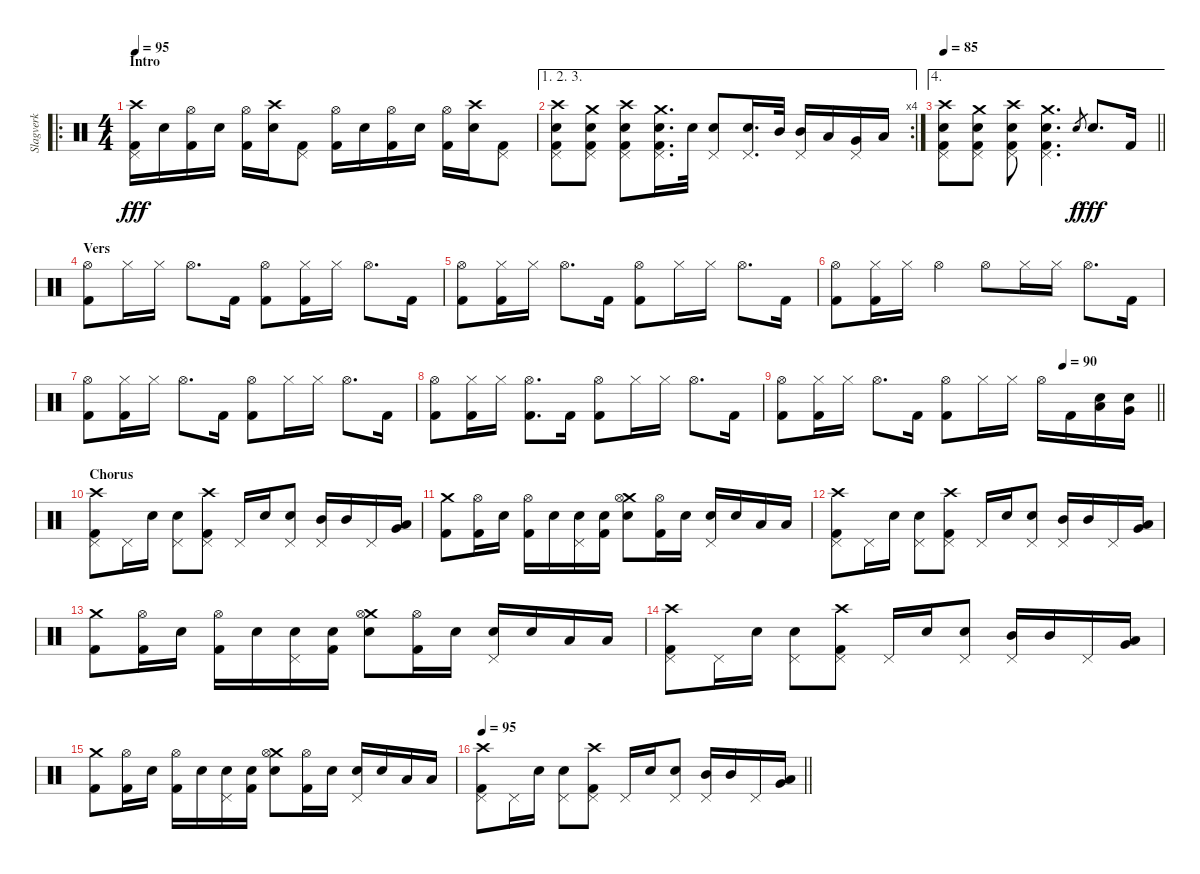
\track ("Slagverk" "Slagverk") {instrument percussion}
\staff {score}
\articulation defaults
\ro
\ts (4 4)
\section ("" "Intro")
\tempo 95
\clef neutral
\ks c
("Crash high (hit)" "Pedal Hi-Hat (hit)" "Kick (hit) 2").16{dy fff} "Snare (hit) 2".16 ("Hi-Hat (open)" "Kick (hit) 2").16 "Snare (hit) 2".16 ("Hi-Hat (open)" "Kick (hit) 2").16 ("Crash high (hit)" "Snare (hit) 2").16 ("Pedal Hi-Hat (hit)" "Kick (hit) 2").8 ("Hi-Hat (open)" "Kick (hit) 2").16 "Snare (hit) 2".16 ("Hi-Hat (open)" "Kick (hit) 2").16 "Snare (hit) 2".16 ("Hi-Hat (open)" "Kick (hit) 2").16 ("Crash high (hit)" "Snare (hit) 2").16 ("Pedal Hi-Hat (hit)" "Kick (hit) 2").8 |
\ae (1 2 3)
\rc 4
("Crash high (hit)" "Pedal Hi-Hat (hit)" "Snare (hit) 2" "Kick (hit) 2").8 ("Crash medium (hit)" "Pedal Hi-Hat (hit)" "Snare (hit) 2" "Kick (hit) 2").8 ("Crash high (hit)" "Pedal Hi-Hat (hit)" "Snare (hit) 2" "Kick (hit) 2").8 ("Crash medium (hit)" "Pedal Hi-Hat (hit)" "Snare (hit) 2" "Kick (hit) 2").16{d} "Snare (hit) 2".32 ("Pedal Hi-Hat (hit)" "Snare (hit) 2").8 ("Pedal Hi-Hat (hit)" "Snare (hit) 2").16{d} "Mid Tom (hit)".32 ("Pedal Hi-Hat (hit)" "Mid Tom (hit)").16 "Low Tom (hit)".16 ("Pedal Hi-Hat (hit)" "Very Low Tom (hit)").16 "Low Floor Tom (hit)".16 |
\ae 4
\tempo 85
\barLineRight lightlight
("Crash high (hit)" "Pedal Hi-Hat (hit)" "Snare (hit) 2" "Kick (hit) 2").8 ("Crash medium (hit)" "Pedal Hi-Hat (hit)" "Snare (hit) 2" "Kick (hit) 2").8 ("Crash high (hit)" "Pedal Hi-Hat (hit)" "Snare (hit) 2" "Kick (hit) 2").8 ("Crash medium (hit)" "Pedal Hi-Hat (hit)" "Snare (hit) 2" "Kick (hit) 2").4{d} "Snare (hit) 2".8{gr dy f} "Snare (hit) 2".8{d dy fff} "Kick (hit) 2".16 |
\section ("" "Vers")
("Hi-Hat (open)" "Kick (hit) 2").8 "Hi-Hat (closed)".16 "Hi-Hat (closed)".16 "Hi-Hat (open)".8{d} "Kick (hit) 2".16 ("Hi-Hat (open)" "Kick (hit) 2").8 ("Hi-Hat (closed)" "Kick (hit) 2").16 "Hi-Hat (closed)".16 "Hi-Hat (open)".8{d} "Kick (hit) 2".16 |
("Hi-Hat (open)" "Kick (hit) 2").8 ("Hi-Hat (closed)" "Kick (hit) 2").16 "Hi-Hat (closed)".16 "Hi-Hat (open)".8{d} "Kick (hit) 2".16 ("Hi-Hat (open)" "Kick (hit) 2").8 "Hi-Hat (closed)".16 "Hi-Hat (closed)".16 "Hi-Hat (open)".8{d} "Kick (hit) 2".16 |
("Hi-Hat (open)" "Kick (hit) 2").8 ("Hi-Hat (closed)" "Kick (hit) 2").16 "Hi-Hat (closed)".16 "Hi-Hat (open)".4 "Hi-Hat (open)".8 "Hi-Hat (closed)".16 "Hi-Hat (closed)".16 "Hi-Hat (open)".8{d} "Kick (hit) 2".16 |
("Hi-Hat (open)" "Kick (hit) 2").8 ("Hi-Hat (closed)" "Kick (hit) 2").16 "Hi-Hat (closed)".16 "Hi-Hat (open)".8{d} "Kick (hit) 2".16 ("Hi-Hat (open)" "Kick (hit) 2").8 "Hi-Hat (closed)".16 "Hi-Hat (closed)".16 "Hi-Hat (open)".8{d} "Kick (hit) 2".16 |
("Hi-Hat (open)" "Kick (hit) 2").8 ("Hi-Hat (closed)" "Kick (hit) 2").16 "Hi-Hat (closed)".16 ("Hi-Hat (open)" "Kick (hit) 2").8{d} "Kick (hit) 2".16 ("Hi-Hat (open)" "Kick (hit) 2").8 "Hi-Hat (closed)".16 "Hi-Hat (closed)".16 "Hi-Hat (open)".8{d} "Kick (hit) 2".16 |
\tempo (90 0.75)
\barLineRight lightlight
("Hi-Hat (open)" "Kick (hit) 2").8 ("Hi-Hat (closed)" "Kick (hit) 2").16 "Hi-Hat (closed)".16 "Hi-Hat (open)".8{d} "Kick (hit) 2".16 ("Hi-Hat (open)" "Kick (hit) 2").8 "Hi-Hat (closed)".16 "Hi-Hat (closed)".16 "Hi-Hat (open)".16 "Kick (hit) 2".16 ("Low Tom (hit)" "Snare (hit) 2").16 ("Very Low Tom (hit)" "Snare (hit) 2").16 |
\section ("" "Chorus")
("Crash high (hit)" "Pedal Hi-Hat (hit)" "Kick (hit) 2").8 "Pedal Hi-Hat (hit)".16 "Snare (hit) 2".16 ("Pedal Hi-Hat (hit)" "Snare (hit) 2").8 ("Crash high (hit)" "Pedal Hi-Hat (hit)" "Kick (hit) 2").8 "Pedal Hi-Hat (hit)".16 "Snare (hit) 2".16 ("Pedal Hi-Hat (hit)" "Snare (hit) 2").8 ("Pedal Hi-Hat (hit)" "Mid Tom (hit)").16 "Mid Tom (hit)".16 "Pedal Hi-Hat (hit)".16 ("Low Tom (hit)" "Very Low Tom (hit)").16 |
("Crash medium (hit)" "Kick (hit) 2").8 ("Hi-Hat (open)" "Kick (hit) 2").16 "Snare (hit) 2".16 ("Hi-Hat (open)" "Kick (hit) 2").16 "Snare (hit) 2".16 ("Pedal Hi-Hat (hit)" "Snare (hit) 2").16 ("Snare (hit) 2" "Kick (hit) 2").16 ("Crash medium (hit)" "Hi-Hat (open)" "Snare (hit) 2").8 ("Hi-Hat (open)" "Kick (hit) 2").16 "Snare (hit) 2".16 ("Pedal Hi-Hat (hit)" "Snare (hit) 2").16 "Snare (hit) 2".16 "Low Tom (hit)".16 "Low Tom (hit)".16 |
("Crash high (hit)" "Pedal Hi-Hat (hit)" "Kick (hit) 2").8 "Pedal Hi-Hat (hit)".16 "Snare (hit) 2".16 ("Pedal Hi-Hat (hit)" "Snare (hit) 2").8 ("Crash high (hit)" "Pedal Hi-Hat (hit)" "Kick (hit) 2").8 "Pedal Hi-Hat (hit)".16 "Snare (hit) 2".16 ("Pedal Hi-Hat (hit)" "Snare (hit) 2").8 ("Pedal Hi-Hat (hit)" "Mid Tom (hit)").16 "Mid Tom (hit)".16 "Pedal Hi-Hat (hit)".16 ("Low Tom (hit)" "Very Low Tom (hit)").16 |
("Crash medium (hit)" "Kick (hit) 2").8 ("Hi-Hat (open)" "Kick (hit) 2").16 "Snare (hit) 2".16 ("Hi-Hat (open)" "Kick (hit) 2").16 "Snare (hit) 2".16 ("Pedal Hi-Hat (hit)" "Snare (hit) 2").16 ("Snare (hit) 2" "Kick (hit) 2").16 ("Crash medium (hit)" "Hi-Hat (open)" "Snare (hit) 2").8 ("Hi-Hat (open)" "Kick (hit) 2").16 "Snare (hit) 2".16 ("Pedal Hi-Hat (hit)" "Snare (hit) 2").16 "Snare (hit) 2".16 "Low Tom (hit)".16 "Low Tom (hit)".16 |
("Crash high (hit)" "Pedal Hi-Hat (hit)" "Kick (hit) 2").8 "Pedal Hi-Hat (hit)".16 "Snare (hit) 2".16 ("Pedal Hi-Hat (hit)" "Snare (hit) 2").8 ("Crash high (hit)" "Pedal Hi-Hat (hit)" "Kick (hit) 2").8 "Pedal Hi-Hat (hit)".16 "Snare (hit) 2".16 ("Pedal Hi-Hat (hit)" "Snare (hit) 2").8 ("Pedal Hi-Hat (hit)" "Mid Tom (hit)").16 "Mid Tom (hit)".16 "Pedal Hi-Hat (hit)".16 ("Low Tom (hit)" "Very Low Tom (hit)").16 |
("Crash medium (hit)" "Kick (hit) 2").8 ("Hi-Hat (open)" "Kick (hit) 2").16 "Snare (hit) 2".16 ("Hi-Hat (open)" "Kick (hit) 2").16 "Snare (hit) 2".16 ("Pedal Hi-Hat (hit)" "Snare (hit) 2").16 ("Snare (hit) 2" "Kick (hit) 2").16 ("Crash medium (hit)" "Hi-Hat (open)" "Snare (hit) 2").8 ("Hi-Hat (open)" "Kick (hit) 2").16 "Snare (hit) 2".16 ("Pedal Hi-Hat (hit)" "Snare (hit) 2").16 "Snare (hit) 2".16 "Low Tom (hit)".16 "Low Tom (hit)".16 |
\tempo 95
\barLineRight lightlight
("Crash high (hit)" "Pedal Hi-Hat (hit)" "Kick (hit) 2").8 "Pedal Hi-Hat (hit)".16 "Snare (hit) 2".16 ("Pedal Hi-Hat (hit)" "Snare (hit) 2").8 ("Crash high (hit)" "Pedal Hi-Hat (hit)" "Kick (hit) 2").8 "Pedal Hi-Hat (hit)".16 "Snare (hit) 2".16 ("Pedal Hi-Hat (hit)" "Snare (hit) 2").8 ("Pedal Hi-Hat (hit)" "Mid Tom (hit)").16 "Mid Tom (hit)".16 "Pedal Hi-Hat (hit)".16 ("Low Tom (hit)" "Very Low Tom (hit)").16
